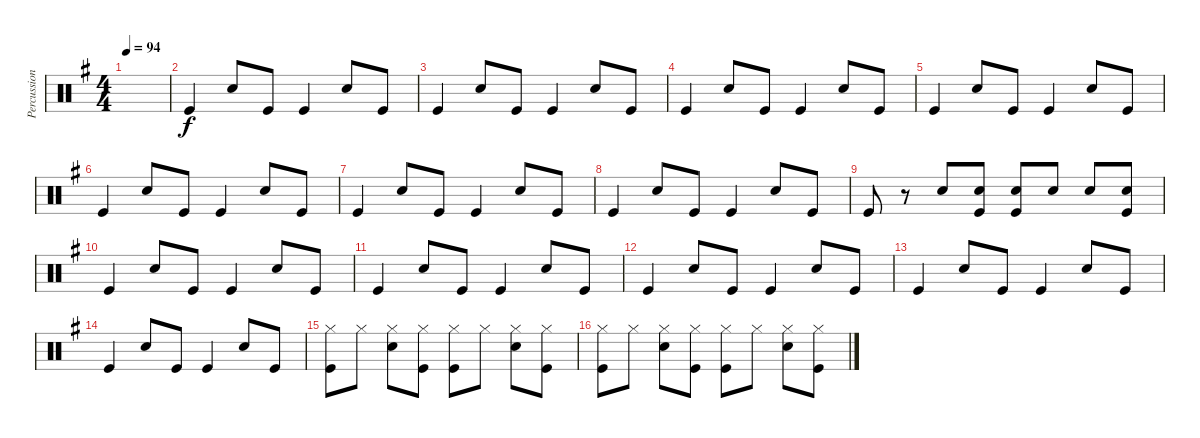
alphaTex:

\track ("Percussion" "Percussion") {instrument percussion}
\staff {score}
\articulation defaults
\ts (4 4)
\tempo 94
\clef neutral
\ks g
|
"Kick (hit)".4 "Snare (hit) 2".8 "Kick (hit)".8 "Kick (hit)".4 "Snare (hit) 2".8 "Kick (hit)".8 |
"Kick (hit)".4 "Snare (hit) 2".8 "Kick (hit)".8 "Kick (hit)".4 "Snare (hit) 2".8 "Kick (hit)".8 |
"Kick (hit)".4 "Snare (hit) 2".8 "Kick (hit)".8 "Kick (hit)".4 "Snare (hit) 2".8 "Kick (hit)".8 |
"Kick (hit)".4 "Snare (hit) 2".8 "Kick (hit)".8 "Kick (hit)".4 "Snare (hit) 2".8 "Kick (hit)".8 |
"Kick (hit)".4 "Snare (hit) 2".8 "Kick (hit)".8 "Kick (hit)".4 "Snare (hit) 2".8 "Kick (hit)".8 |
"Kick (hit)".4 "Snare (hit) 2".8 "Kick (hit)".8 "Kick (hit)".4 "Snare (hit) 2".8 "Kick (hit)".8 |
"Kick (hit)".4 "Snare (hit) 2".8 "Kick (hit)".8 "Kick (hit)".4 "Snare (hit) 2".8 "Kick (hit)".8 |
"Kick (hit)".8 r.8 "Snare (hit) 2".8 ("Snare (hit) 2" "Kick (hit)").8 ("Snare (hit) 2" "Kick (hit)").8 "Snare (hit) 2".8 "Snare (hit) 2".8 ("Snare (hit) 2" "Kick (hit)").8 |
"Kick (hit)".4 "Snare (hit) 2".8 "Kick (hit)".8 "Kick (hit)".4 "Snare (hit) 2".8 "Kick (hit)".8 |
"Kick (hit)".4 "Snare (hit) 2".8 "Kick (hit)".8 "Kick (hit)".4 "Snare (hit) 2".8 "Kick (hit)".8 |
"Kick (hit)".4 "Snare (hit) 2".8 "Kick (hit)".8 "Kick (hit)".4 "Snare (hit) 2".8 "Kick (hit)".8 |
"Kick (hit)".4 "Snare (hit) 2".8 "Kick (hit)".8 "Kick (hit)".4 "Snare (hit) 2".8 "Kick (hit)".8 |
"Kick (hit)".4 "Snare (hit) 2".8 "Kick (hit)".8 "Kick (hit)".4 "Snare (hit) 2".8 "Kick (hit)".8 |
("Hi-Hat (closed)" "Kick (hit)").8 "Hi-Hat (closed)".8 ("Hi-Hat (closed)" "Snare (hit) 2").8 ("Hi-Hat (closed)" "Kick (hit)").8 ("Hi-Hat (closed)" "Kick (hit)").8 "Hi-Hat (closed)".8 ("Hi-Hat (closed)" "Snare (hit) 2").8 ("Hi-Hat (closed)" "Kick (hit)").8 |
("Hi-Hat (closed)" "Kick (hit)").8 "Hi-Hat (closed)".8 ("Hi-Hat (closed)" "Snare (hit) 2").8 ("Hi-Hat (closed)" "Kick (hit)").8 ("Hi-Hat (closed)" "Kick (hit)").8 "Hi-Hat (closed)".8 ("Hi-Hat (closed)" "Snare (hit) 2").8 ("Hi-Hat (closed)" "Kick (hit)").8
